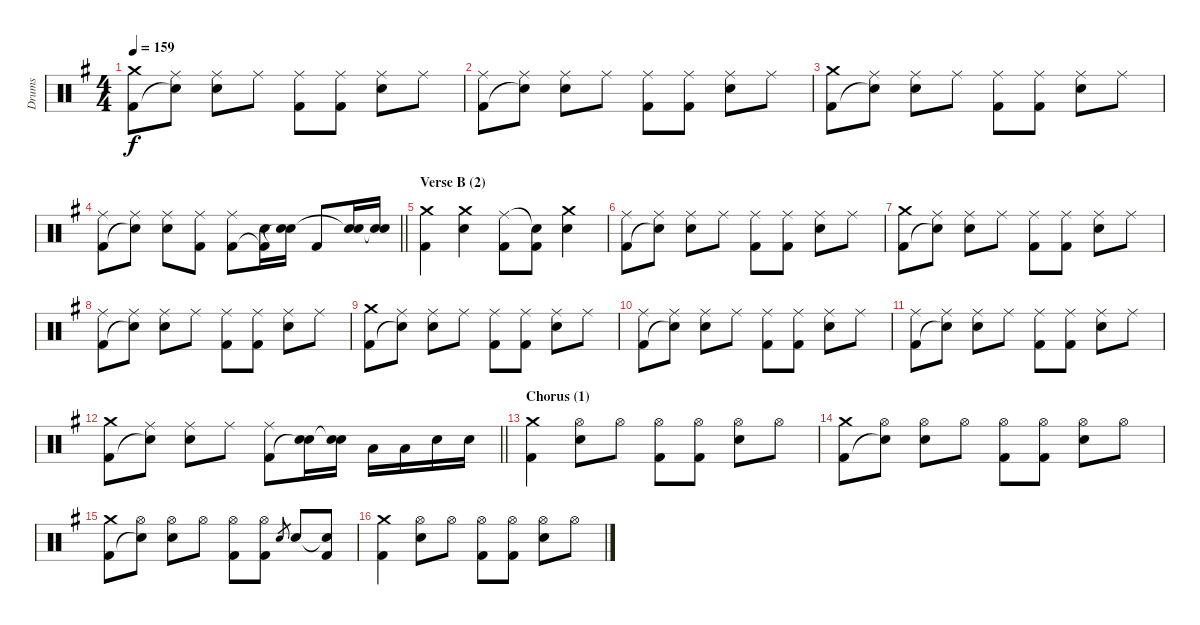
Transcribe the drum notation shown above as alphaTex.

\track ("Drums" "Drums") {instrument percussion}
\staff {score}
\articulation defaults
\ts (4 4)
\tempo 159
\clef neutral
\ks g
("Crash medium (hit)" "Kick (hit) 2").8{dy f} ("Ride (middle)" "Snare (hit)"{t}).8 ("Ride (middle)" "Electric Snare (hit)").8 "Ride (middle)".8 ("Ride (middle)" "Kick (hit) 2").8 ("Ride (middle)" "Kick (hit) 2").8 ("Ride (middle)" "Electric Snare (hit)").8 "Ride (middle)".8 |
("Ride (middle)" "Kick (hit) 2").8 ("Ride (middle)" "Snare (hit)"{t}).8 ("Ride (middle)" "Electric Snare (hit)").8 "Ride (middle)".8 ("Ride (middle)" "Kick (hit) 2").8 ("Ride (middle)" "Kick (hit) 2").8 ("Ride (middle)" "Electric Snare (hit)").8 "Ride (middle)".8 |
("Crash medium (hit)" "Kick (hit) 2").8 ("Ride (middle)" "Snare (hit)"{t}).8 ("Ride (middle)" "Electric Snare (hit)").8 "Ride (middle)".8 ("Ride (middle)" "Kick (hit) 2").8 ("Ride (middle)" "Kick (hit) 2").8 ("Ride (middle)" "Electric Snare (hit)").8 "Ride (middle)".8 |
\barLineRight lightlight
("Ride (middle)" "Kick (hit) 2").8 ("Ride (middle)" "Snare (hit)"{t}).8 ("Ride (middle)" "Electric Snare (hit)").8 ("Ride (middle)" "Kick (hit) 2").8 ("Ride (middle)" "Kick (hit) 2").8 ("Electric Snare (hit)" "Kick (hit) 2"{t}).16 ("Electric Snare (hit)" "Snare (hit)"{t}).16 "Kick (hit) 2".8 ("Electric Snare (hit)" "Snare (hit)"{t}).16 ("Electric Snare (hit)" "Snare (hit)"{t}).16 |
\section ("" "Verse B (2)")
("Crash medium (hit)" "Kick (hit) 2").4 ("Crash medium (hit)" "Electric Snare (hit)").4 ("Ride (middle)" "Kick (hit) 2").8 ("Snare (hit)"{t} "Kick (hit) 2").8 ("Crash medium (hit)" "Electric Snare (hit)").4 |
("Ride (middle)" "Kick (hit) 2").8 ("Ride (middle)" "Snare (hit)"{t}).8 ("Ride (middle)" "Electric Snare (hit)").8 "Ride (middle)".8 ("Ride (middle)" "Kick (hit) 2").8 ("Ride (middle)" "Kick (hit) 2").8 ("Ride (middle)" "Electric Snare (hit)").8 "Ride (middle)".8 |
("Crash medium (hit)" "Kick (hit) 2").8 ("Ride (middle)" "Snare (hit)"{t}).8 ("Ride (middle)" "Electric Snare (hit)").8 "Ride (middle)".8 ("Ride (middle)" "Kick (hit) 2").8 ("Ride (middle)" "Kick (hit) 2").8 ("Ride (middle)" "Electric Snare (hit)").8 "Ride (middle)".8 |
("Ride (middle)" "Kick (hit) 2").8 ("Ride (middle)" "Snare (hit)"{t}).8 ("Ride (middle)" "Electric Snare (hit)").8 "Ride (middle)".8 ("Ride (middle)" "Kick (hit) 2").8 ("Ride (middle)" "Kick (hit) 2").8 ("Ride (middle)" "Electric Snare (hit)").8 "Ride (middle)".8 |
("Crash medium (hit)" "Kick (hit) 2").8 ("Ride (middle)" "Snare (hit)"{t}).8 ("Ride (middle)" "Electric Snare (hit)").8 "Ride (middle)".8 ("Ride (middle)" "Kick (hit) 2").8 ("Ride (middle)" "Kick (hit) 2").8 ("Ride (middle)" "Electric Snare (hit)").8 "Ride (middle)".8 |
("Ride (middle)" "Kick (hit) 2").8 ("Ride (middle)" "Snare (hit)"{t}).8 ("Ride (middle)" "Electric Snare (hit)").8 "Ride (middle)".8 ("Ride (middle)" "Kick (hit) 2").8 ("Ride (middle)" "Kick (hit) 2").8 ("Ride (middle)" "Electric Snare (hit)").8 "Ride (middle)".8 |
("Ride (middle)" "Kick (hit) 2").8 ("Ride (middle)" "Snare (hit)"{t}).8 ("Ride (middle)" "Electric Snare (hit)").8 "Ride (middle)".8 ("Ride (middle)" "Kick (hit) 2").8 ("Ride (middle)" "Kick (hit) 2").8 ("Ride (middle)" "Electric Snare (hit)").8 "Ride (middle)".8 |
\barLineRight lightlight
("Crash medium (hit)" "Kick (hit) 2").8 ("Ride (middle)" "Snare (hit)"{t}).8 ("Ride (middle)" "Electric Snare (hit)").8 "Ride (middle)".8 ("Ride (middle)" "Kick (hit) 2").8 ("Electric Snare (hit)" "Snare (hit)"{t}).16 ("Electric Snare (hit)" "Snare (hit)"{t}).16 "Low Tom (hit)".16 "Low Tom (hit)".16 "Electric Snare (hit)".16 "Electric Snare (hit)".16 |
\section ("" "Chorus (1)")
("Crash medium (hit)" "Kick (hit) 2").4 ("Hi-Hat (open)" "Electric Snare (hit)").8 "Hi-Hat (open)".8 ("Hi-Hat (open)" "Kick (hit) 2").8 ("Hi-Hat (open)" "Kick (hit) 2").8 ("Hi-Hat (open)" "Electric Snare (hit)").8 "Hi-Hat (open)".8 |
("Crash medium (hit)" "Kick (hit) 2").8 ("Hi-Hat (open)" "Snare (hit)"{t}).8 ("Hi-Hat (open)" "Electric Snare (hit)").8 "Hi-Hat (open)".8 ("Hi-Hat (open)" "Kick (hit) 2").8 ("Hi-Hat (open)" "Kick (hit) 2").8 ("Hi-Hat (open)" "Electric Snare (hit)").8 "Hi-Hat (open)".8 |
("Crash medium (hit)" "Kick (hit) 2").8 ("Hi-Hat (open)" "Snare (hit)"{t}).8 ("Hi-Hat (open)" "Electric Snare (hit)").8 "Hi-Hat (open)".8 ("Hi-Hat (open)" "Kick (hit) 2").8 ("Hi-Hat (open)" "Kick (hit) 2").8 "Electric Snare (hit)".8{gr} "Electric Snare (hit)".8 ("Snare (hit)"{t} "Kick (hit) 2").8 |
("Crash medium (hit)" "Kick (hit) 2").4 ("Hi-Hat (open)" "Electric Snare (hit)").8 "Hi-Hat (open)".8 ("Hi-Hat (open)" "Kick (hit) 2").8 ("Hi-Hat (open)" "Kick (hit) 2").8 ("Hi-Hat (open)" "Electric Snare (hit)").8 "Hi-Hat (open)".8
